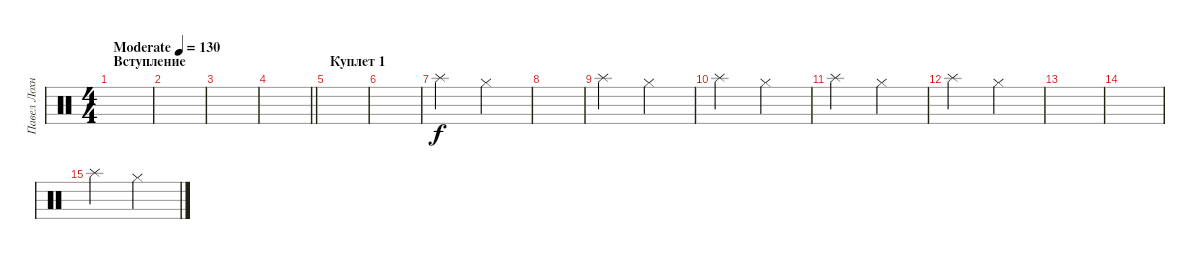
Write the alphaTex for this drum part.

\track ("Павел Лохнин" "Павел Лохн") {instrument percussion}
\staff {score}
\articulation defaults
\ts (4 4)
\section ("" "Вступление")
\tempo (130 "Moderate")
\clef neutral
\ks c
|
|
|
\barLineRight lightlight
|
\section ("" "Куплет 1")
|
|
"Splash (hit)".2{volume 10} "Hi-Hat (closed)".2 |
|
"Splash (hit)".2 "Hi-Hat (closed)".2 |
"Splash (hit)".2 "Hi-Hat (closed)".2 |
"Splash (hit)".2 "Hi-Hat (closed)".2 |
"Splash (hit)".2 "Hi-Hat (closed)".2 |
|
|
"Splash (hit)".2 "Hi-Hat (closed)".2
